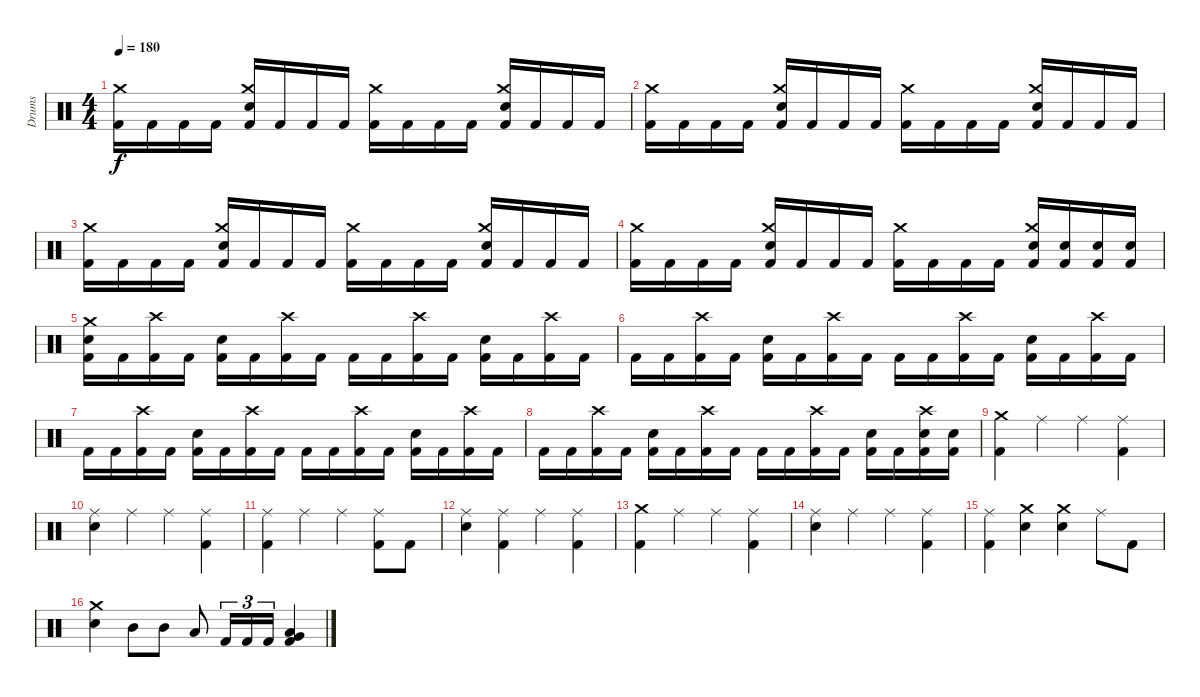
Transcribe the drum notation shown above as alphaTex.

\track ("Drums" "Drums") {instrument percussion}
\staff {score}
\articulation defaults
\ts (4 4)
\tempo 180
\clef neutral
\ks c
("Kick (hit) 2" "Crash medium (hit)").16{dy f} "Kick (hit) 2".16 "Kick (hit) 2".16 "Kick (hit) 2".16 ("Kick (hit) 2" "Electric Snare (hit)" "Crash medium (hit)").16 "Kick (hit) 2".16 "Kick (hit) 2".16 "Kick (hit) 2".16 ("Kick (hit) 2" "Crash medium (hit)").16 "Kick (hit) 2".16 "Kick (hit) 2".16 "Kick (hit) 2".16 ("Kick (hit) 2" "Electric Snare (hit)" "Crash medium (hit)").16 "Kick (hit) 2".16 "Kick (hit) 2".16 "Kick (hit) 2".16 |
("Kick (hit) 2" "Crash medium (hit)").16 "Kick (hit) 2".16 "Kick (hit) 2".16 "Kick (hit) 2".16 ("Kick (hit) 2" "Electric Snare (hit)" "Crash medium (hit)").16 "Kick (hit) 2".16 "Kick (hit) 2".16 "Kick (hit) 2".16 ("Kick (hit) 2" "Crash medium (hit)").16 "Kick (hit) 2".16 "Kick (hit) 2".16 "Kick (hit) 2".16 ("Kick (hit) 2" "Electric Snare (hit)" "Crash medium (hit)").16 "Kick (hit) 2".16 "Kick (hit) 2".16 "Kick (hit) 2".16 |
("Kick (hit) 2" "Crash medium (hit)").16 "Kick (hit) 2".16 "Kick (hit) 2".16 "Kick (hit) 2".16 ("Kick (hit) 2" "Electric Snare (hit)" "Crash medium (hit)").16 "Kick (hit) 2".16 "Kick (hit) 2".16 "Kick (hit) 2".16 ("Kick (hit) 2" "Crash medium (hit)").16 "Kick (hit) 2".16 "Kick (hit) 2".16 "Kick (hit) 2".16 ("Kick (hit) 2" "Electric Snare (hit)" "Crash medium (hit)").16 "Kick (hit) 2".16 "Kick (hit) 2".16 "Kick (hit) 2".16 |
("Kick (hit) 2" "Crash medium (hit)").16 "Kick (hit) 2".16 "Kick (hit) 2".16 "Kick (hit) 2".16 ("Kick (hit) 2" "Electric Snare (hit)" "Crash medium (hit)").16 "Kick (hit) 2".16 "Kick (hit) 2".16 "Kick (hit) 2".16 ("Kick (hit) 2" "Crash medium (hit)").16 "Kick (hit) 2".16 "Kick (hit) 2".16 "Kick (hit) 2".16 ("Kick (hit) 2" "Electric Snare (hit)" "Crash medium (hit)").16 ("Kick (hit) 2" "Electric Snare (hit)").16 ("Kick (hit) 2" "Electric Snare (hit)").16 ("Kick (hit) 2" "Electric Snare (hit)").16 |
("Kick (hit) 2" "Electric Snare (hit)" "Crash medium (hit)").16 "Kick (hit) 2".16 ("Kick (hit) 2" "Crash high (hit)").16 "Kick (hit) 2".16 ("Kick (hit) 2" "Electric Snare (hit)").16 "Kick (hit) 2".16 ("Kick (hit) 2" "Crash high (hit)").16 "Kick (hit) 2".16 "Kick (hit) 2".16 "Kick (hit) 2".16 ("Kick (hit) 2" "Crash high (hit)").16 "Kick (hit) 2".16 ("Kick (hit) 2" "Electric Snare (hit)").16 "Kick (hit) 2".16 ("Kick (hit) 2" "Crash high (hit)").16 "Kick (hit) 2".16 |
"Kick (hit) 2".16 "Kick (hit) 2".16 ("Kick (hit) 2" "Crash high (hit)").16 "Kick (hit) 2".16 ("Kick (hit) 2" "Electric Snare (hit)").16 "Kick (hit) 2".16 ("Kick (hit) 2" "Crash high (hit)").16 "Kick (hit) 2".16 "Kick (hit) 2".16 "Kick (hit) 2".16 ("Kick (hit) 2" "Crash high (hit)").16 "Kick (hit) 2".16 ("Kick (hit) 2" "Electric Snare (hit)").16 "Kick (hit) 2".16 ("Kick (hit) 2" "Crash high (hit)").16 "Kick (hit) 2".16 |
"Kick (hit) 2".16 "Kick (hit) 2".16 ("Kick (hit) 2" "Crash high (hit)").16 "Kick (hit) 2".16 ("Kick (hit) 2" "Electric Snare (hit)").16 "Kick (hit) 2".16 ("Kick (hit) 2" "Crash high (hit)").16 "Kick (hit) 2".16 "Kick (hit) 2".16 "Kick (hit) 2".16 ("Kick (hit) 2" "Crash high (hit)").16 "Kick (hit) 2".16 ("Kick (hit) 2" "Electric Snare (hit)").16 "Kick (hit) 2".16 ("Kick (hit) 2" "Crash high (hit)").16 "Kick (hit) 2".16 |
"Kick (hit) 2".16 "Kick (hit) 2".16 ("Kick (hit) 2" "Crash high (hit)").16 "Kick (hit) 2".16 ("Kick (hit) 2" "Electric Snare (hit)").16 "Kick (hit) 2".16 ("Kick (hit) 2" "Crash high (hit)").16 "Kick (hit) 2".16 "Kick (hit) 2".16 "Kick (hit) 2".16 ("Kick (hit) 2" "Crash high (hit)").16 "Kick (hit) 2".16 ("Kick (hit) 2" "Electric Snare (hit)").16 "Kick (hit) 2".16 ("Kick (hit) 2" "Electric Snare (hit)" "Crash high (hit)").16 ("Kick (hit) 2" "Electric Snare (hit)").16 |
("Kick (hit) 2" "Crash medium (hit)").4 "Ride (middle)".4 "Ride (middle)".4 ("Kick (hit) 2" "Ride (middle)").4 |
("Electric Snare (hit)" "Ride (middle)").4 "Ride (middle)".4 "Ride (middle)".4 ("Kick (hit) 2" "Ride (middle)").4 |
("Kick (hit) 2" "Ride (middle)").4 "Ride (middle)".4 "Ride (middle)".4 ("Kick (hit) 2" "Ride (middle)").8 "Kick (hit) 2".8 |
("Electric Snare (hit)" "Ride (middle)").4 ("Kick (hit) 2" "Ride (middle)").4 "Ride (middle)".4 ("Kick (hit) 2" "Ride (middle)").4 |
("Kick (hit) 2" "Crash medium (hit)").4 "Ride (middle)".4 "Ride (middle)".4 ("Kick (hit) 2" "Ride (middle)").4 |
("Electric Snare (hit)" "Ride (middle)").4 "Ride (middle)".4 "Ride (middle)".4 ("Kick (hit) 2" "Ride (middle)").4 |
("Kick (hit) 2" "Ride (middle)").4 ("Electric Snare (hit)" "Crash medium (hit)").4 ("Electric Snare (hit)" "Crash medium (hit)").4 "Ride (middle)".8 "Kick (hit) 2".8 |
("Electric Snare (hit)" "Crash medium (hit)").4 "Mid Tom (hit)".8 "Mid Tom (hit)".8 "Low Tom (hit)".8 "Kick (hit) 2".16{tu (3 2)} "Kick (hit) 2".16{tu (3 2)} "Kick (hit) 2".16{tu (3 2)} ("Kick (hit) 2" "Low Tom (hit)" "Very Low Tom (hit)").4
